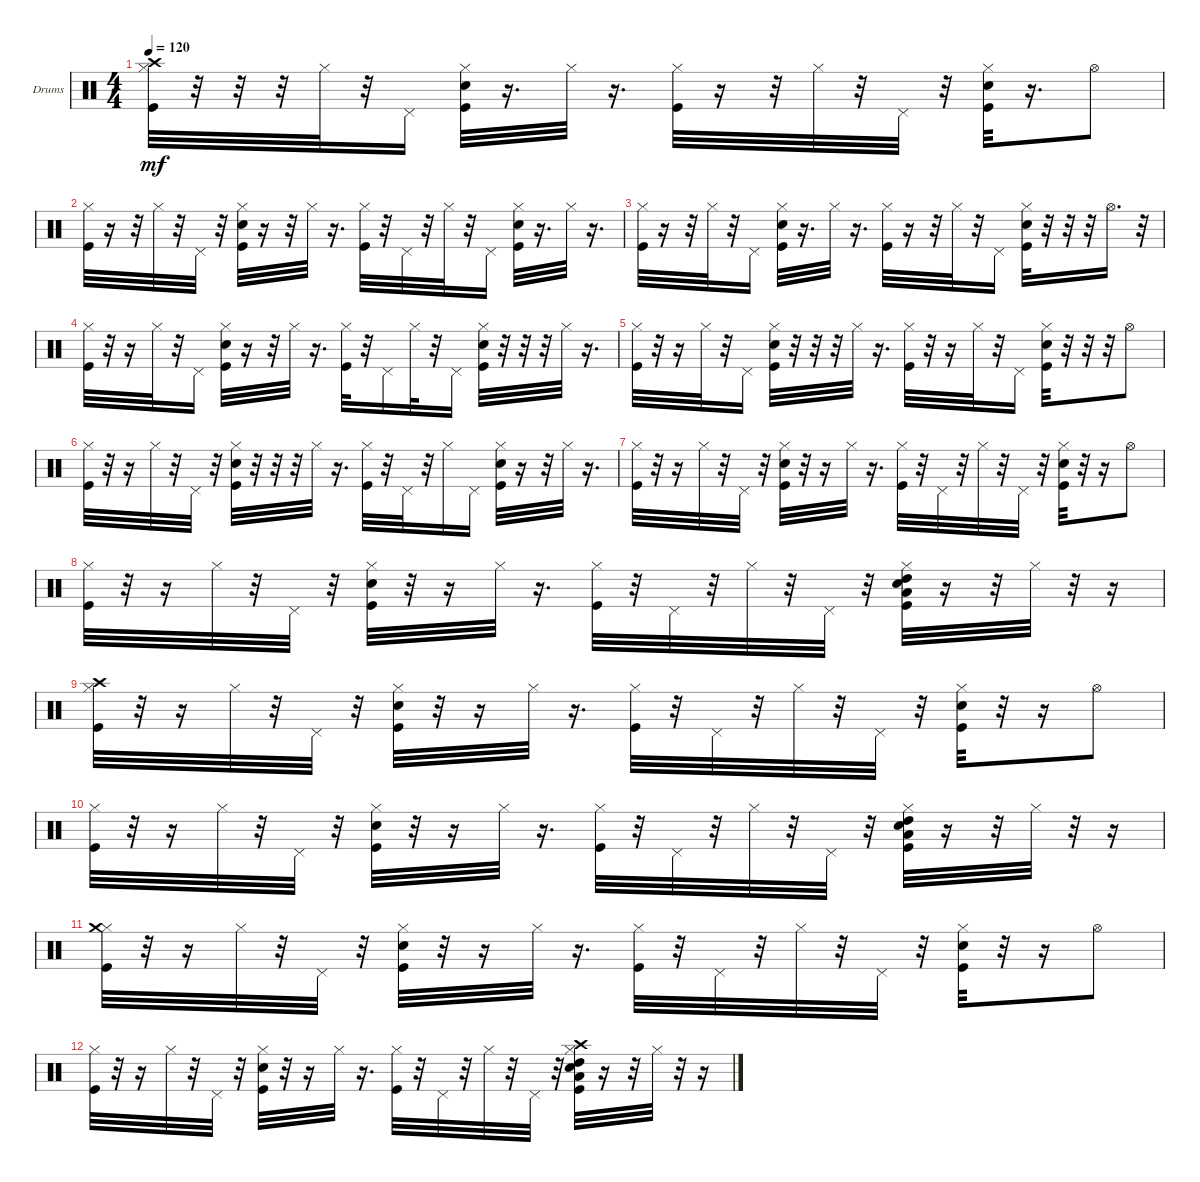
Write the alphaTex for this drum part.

\bracketExtendMode groupsimilarinstruments
\firstSystemTrackNameOrientation horizontal
\otherSystemsTrackNameOrientation horizontal
\track ("Ударные" "Drums") {instrument percussion}
\staff {score}
\articulation defaults
\ts (4 4)
\tempo 120
\clef neutral
\ks c
("Kick (hit)" "Hi-Hat (closed)" "Crash high (hit)").32{dy mf} r.32 r.32 r.32 "Hi-Hat (closed)".32 r.32 "Pedal Hi-Hat (hit)".16 ("Kick (hit)" "Snare (hit) 2" "Hi-Hat (closed)").32 r.16{d} "Hi-Hat (closed)".32 r.16{d} ("Kick (hit)" "Hi-Hat (closed)").32 r.16 r.32 "Hi-Hat (closed)".32 r.32 "Pedal Hi-Hat (hit)".32 r.32 ("Kick (hit)" "Snare (hit) 2" "Hi-Hat (closed)").32 r.16{d} "Hi-Hat (open)".8 |
("Kick (hit)" "Hi-Hat (closed)").32 r.16 r.32 "Hi-Hat (closed)".32 r.32 "Pedal Hi-Hat (hit)".32 r.32 ("Snare (hit) 2" "Kick (hit)" "Hi-Hat (closed)").32 r.16 r.32 "Hi-Hat (closed)".32 r.16{d} ("Kick (hit)" "Hi-Hat (closed)").32 r.32 "Pedal Hi-Hat (hit)".32 r.32 "Hi-Hat (closed)".32 r.32 "Pedal Hi-Hat (hit)".16 ("Kick (hit)" "Snare (hit) 2" "Hi-Hat (closed)").32 r.16{d} "Hi-Hat (closed)".32 r.16{d} |
("Kick (hit)" "Hi-Hat (closed)").32 r.16 r.32 "Hi-Hat (closed)".32 r.32 "Pedal Hi-Hat (hit)".16 ("Snare (hit) 2" "Kick (hit)" "Hi-Hat (closed)").32 r.16{d} "Hi-Hat (closed)".32 r.16{d} ("Kick (hit)" "Hi-Hat (closed)").32 r.16 r.32 "Hi-Hat (closed)".32 r.32 "Pedal Hi-Hat (hit)".16 ("Snare (hit) 2" "Kick (hit)" "Hi-Hat (closed)").32 r.32 r.32 r.32 "Hi-Hat (open)".16{d} r.32 |
("Kick (hit)" "Hi-Hat (closed)").32 r.32 r.16 "Hi-Hat (closed)".32 r.32 "Pedal Hi-Hat (hit)".16 ("Kick (hit)" "Snare (hit) 2" "Hi-Hat (closed)").32 r.16 r.32 "Hi-Hat (closed)".32 r.16{d} ("Kick (hit)" "Hi-Hat (closed)").32 r.32 "Pedal Hi-Hat (hit)".16 "Hi-Hat (closed)".32 r.32 "Pedal Hi-Hat (hit)".16 ("Snare (hit) 2" "Kick (hit)" "Hi-Hat (closed)").32 r.32 r.32 r.32 "Hi-Hat (closed)".32 r.16{d} |
("Kick (hit)" "Hi-Hat (closed)").32 r.32 r.16 "Hi-Hat (closed)".32 r.32 "Pedal Hi-Hat (hit)".16 ("Snare (hit) 2" "Kick (hit)" "Hi-Hat (closed)").32 r.32 r.32 r.32 "Hi-Hat (closed)".32 r.16{d} ("Kick (hit)" "Hi-Hat (closed)").32 r.32 r.16 "Hi-Hat (closed)".32 r.32 "Pedal Hi-Hat (hit)".16 ("Snare (hit) 2" "Kick (hit)" "Hi-Hat (closed)").32 r.32 r.32 r.32 "Hi-Hat (open)".8 |
("Kick (hit)" "Hi-Hat (closed)").32 r.32 r.16 "Hi-Hat (closed)".32 r.32 "Pedal Hi-Hat (hit)".32 r.32 ("Kick (hit)" "Snare (hit) 2" "Hi-Hat (closed)").32 r.32 r.32 r.32 "Hi-Hat (closed)".32 r.16{d} ("Kick (hit)" "Hi-Hat (closed)").32 r.32 "Pedal Hi-Hat (hit)".32 r.32 "Hi-Hat (closed)".16 "Pedal Hi-Hat (hit)".16 ("Snare (hit) 2" "Kick (hit)" "Hi-Hat (closed)").32 r.16 r.32 "Hi-Hat (closed)".32 r.16{d} |
("Kick (hit)" "Hi-Hat (closed)").32 r.32 r.16 "Hi-Hat (closed)".32 r.32 "Pedal Hi-Hat (hit)".32 r.32 ("Kick (hit)" "Snare (hit) 2" "Hi-Hat (closed)").32 r.32 r.16 "Hi-Hat (closed)".32 r.16{d} ("Kick (hit)" "Hi-Hat (closed)").32 r.32 "Pedal Hi-Hat (hit)".32 r.32 "Hi-Hat (closed)".32 r.32 "Pedal Hi-Hat (hit)".32 r.32 ("Snare (hit) 2" "Kick (hit)" "Hi-Hat (closed)").32 r.32 r.16 "Hi-Hat (open)".8 |
("Kick (hit)" "Hi-Hat (closed)").32 r.32 r.16 "Hi-Hat (closed)".32 r.32 "Pedal Hi-Hat (hit)".32 r.32 ("Snare (hit) 2" "Kick (hit)" "Hi-Hat (closed)").32 r.32 r.16 "Hi-Hat (closed)".32 r.16{d} ("Kick (hit)" "Hi-Hat (closed)").32 r.32 "Pedal Hi-Hat (hit)".32 r.32 "Hi-Hat (closed)".32 r.32 "Pedal Hi-Hat (hit)".32 r.32 ("Snare (hit) 2" "Kick (hit)" "Hi-Hat (closed)" "Low Tom (hit)" "High Tom (hit)").32 r.16 r.32 "Hi-Hat (closed)".32 r.32 r.16 |
("Kick (hit)" "Hi-Hat (closed)" "Crash high (hit)").32 r.32 r.16 "Hi-Hat (closed)".32 r.32 "Pedal Hi-Hat (hit)".32 r.32 ("Kick (hit)" "Snare (hit) 2" "Hi-Hat (closed)").32 r.32 r.16 "Hi-Hat (closed)".32 r.16{d} ("Kick (hit)" "Hi-Hat (closed)").32 r.32 "Pedal Hi-Hat (hit)".32 r.32 "Hi-Hat (closed)".32 r.32 "Pedal Hi-Hat (hit)".32 r.32 ("Snare (hit) 2" "Kick (hit)" "Hi-Hat (closed)").32 r.32 r.16 "Hi-Hat (open)".8 |
("Kick (hit)" "Hi-Hat (closed)").32 r.32 r.16 "Hi-Hat (closed)".32 r.32 "Pedal Hi-Hat (hit)".32 r.32 ("Snare (hit) 2" "Kick (hit)" "Hi-Hat (closed)").32 r.32 r.16 "Hi-Hat (closed)".32 r.16{d} ("Kick (hit)" "Hi-Hat (closed)").32 r.32 "Pedal Hi-Hat (hit)".32 r.32 "Hi-Hat (closed)".32 r.32 "Pedal Hi-Hat (hit)".32 r.32 ("Snare (hit) 2" "Kick (hit)" "Hi-Hat (closed)" "Low Tom (hit)" "High Tom (hit)").32 r.16 r.32 "Hi-Hat (closed)".32 r.32 r.16 |
("Kick (hit)" "Hi-Hat (closed)" "Crash medium (hit)").32 r.32 r.16 "Hi-Hat (closed)".32 r.32 "Pedal Hi-Hat (hit)".32 r.32 ("Kick (hit)" "Snare (hit) 2" "Hi-Hat (closed)").32 r.32 r.16 "Hi-Hat (closed)".32 r.16{d} ("Kick (hit)" "Hi-Hat (closed)").32 r.32 "Pedal Hi-Hat (hit)".32 r.32 "Hi-Hat (closed)".32 r.32 "Pedal Hi-Hat (hit)".32 r.32 ("Snare (hit) 2" "Kick (hit)" "Hi-Hat (closed)").32 r.32 r.16 "Hi-Hat (open)".8 |
("Kick (hit)" "Hi-Hat (closed)").32 r.32 r.16 "Hi-Hat (closed)".32 r.32 "Pedal Hi-Hat (hit)".32 r.32 ("Snare (hit) 2" "Kick (hit)" "Hi-Hat (closed)").32 r.32 r.16 "Hi-Hat (closed)".32 r.16{d} ("Kick (hit)" "Hi-Hat (closed)").32 r.32 "Pedal Hi-Hat (hit)".32 r.32 "Hi-Hat (closed)".32 r.32 "Pedal Hi-Hat (hit)".32 r.32 ("Snare (hit) 2" "Kick (hit)" "Hi-Hat (closed)" "Low Tom (hit)" "High Tom (hit)" "Crash high (hit)").32 r.16 r.32 "Hi-Hat (closed)".32 r.32 r.16
